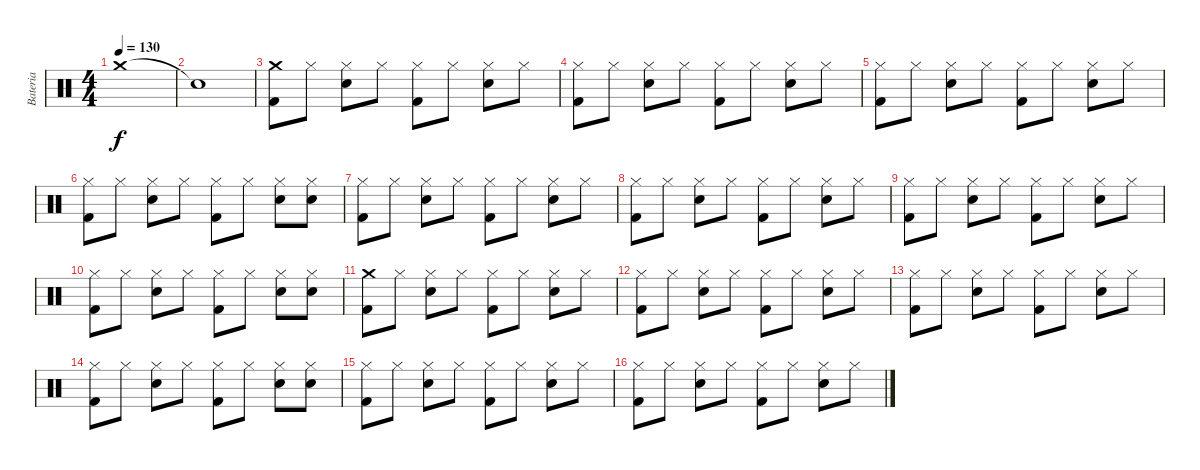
\track ("Bateria" "Bateria") {instrument percussion}
\staff {score}
\articulation defaults
\ts (4 4)
\tempo 130
\clef neutral
\ks c "Crash medium (hit)".1{dy f}
|
"Snare (hit)"{t}.1 |
("Crash medium (hit)" "Kick (hit) 2").8 "Hi-Hat (closed)".8 ("Hi-Hat (closed)" "Electric Snare (hit)").8 "Hi-Hat (closed)".8 ("Hi-Hat (closed)" "Kick (hit) 2").8 "Hi-Hat (closed)".8 ("Hi-Hat (closed)" "Electric Snare (hit)").8 "Hi-Hat (closed)".8 |
("Hi-Hat (closed)" "Kick (hit) 2").8 "Hi-Hat (closed)".8 ("Hi-Hat (closed)" "Electric Snare (hit)").8 "Hi-Hat (closed)".8 ("Hi-Hat (closed)" "Kick (hit) 2").8 "Hi-Hat (closed)".8 ("Hi-Hat (closed)" "Electric Snare (hit)").8 "Hi-Hat (closed)".8 |
("Hi-Hat (closed)" "Kick (hit) 2").8 "Hi-Hat (closed)".8 ("Hi-Hat (closed)" "Electric Snare (hit)").8 "Hi-Hat (closed)".8 ("Hi-Hat (closed)" "Kick (hit) 2").8 "Hi-Hat (closed)".8 ("Hi-Hat (closed)" "Electric Snare (hit)").8 "Hi-Hat (closed)".8 |
("Hi-Hat (closed)" "Kick (hit) 2").8 "Hi-Hat (closed)".8 ("Hi-Hat (closed)" "Electric Snare (hit)").8 "Hi-Hat (closed)".8 ("Hi-Hat (closed)" "Kick (hit) 2").8 "Hi-Hat (closed)".8 ("Hi-Hat (closed)" "Electric Snare (hit)").8 ("Hi-Hat (closed)" "Electric Snare (hit)").8 |
("Hi-Hat (closed)" "Kick (hit) 2").8 "Hi-Hat (closed)".8 ("Hi-Hat (closed)" "Electric Snare (hit)").8 "Hi-Hat (closed)".8 ("Hi-Hat (closed)" "Kick (hit) 2").8 "Hi-Hat (closed)".8 ("Hi-Hat (closed)" "Electric Snare (hit)").8 "Hi-Hat (closed)".8 |
("Hi-Hat (closed)" "Kick (hit) 2").8 "Hi-Hat (closed)".8 ("Hi-Hat (closed)" "Electric Snare (hit)").8 "Hi-Hat (closed)".8 ("Hi-Hat (closed)" "Kick (hit) 2").8 "Hi-Hat (closed)".8 ("Hi-Hat (closed)" "Electric Snare (hit)").8 "Hi-Hat (closed)".8 |
("Hi-Hat (closed)" "Kick (hit) 2").8 "Hi-Hat (closed)".8 ("Hi-Hat (closed)" "Electric Snare (hit)").8 "Hi-Hat (closed)".8 ("Hi-Hat (closed)" "Kick (hit) 2").8 "Hi-Hat (closed)".8 ("Hi-Hat (closed)" "Electric Snare (hit)").8 "Hi-Hat (closed)".8 |
("Hi-Hat (closed)" "Kick (hit) 2").8 "Hi-Hat (closed)".8 ("Hi-Hat (closed)" "Electric Snare (hit)").8 "Hi-Hat (closed)".8 ("Hi-Hat (closed)" "Kick (hit) 2").8 "Hi-Hat (closed)".8 ("Hi-Hat (closed)" "Electric Snare (hit)").8 ("Hi-Hat (closed)" "Electric Snare (hit)").8 |
("Crash medium (hit)" "Kick (hit) 2").8 "Hi-Hat (closed)".8 ("Hi-Hat (closed)" "Electric Snare (hit)").8 "Hi-Hat (closed)".8 ("Hi-Hat (closed)" "Kick (hit) 2").8 "Hi-Hat (closed)".8 ("Hi-Hat (closed)" "Electric Snare (hit)").8 "Hi-Hat (closed)".8 |
("Hi-Hat (closed)" "Kick (hit) 2").8 "Hi-Hat (closed)".8 ("Hi-Hat (closed)" "Electric Snare (hit)").8 "Hi-Hat (closed)".8 ("Hi-Hat (closed)" "Kick (hit) 2").8 "Hi-Hat (closed)".8 ("Hi-Hat (closed)" "Electric Snare (hit)").8 "Hi-Hat (closed)".8 |
("Hi-Hat (closed)" "Kick (hit) 2").8 "Hi-Hat (closed)".8 ("Hi-Hat (closed)" "Electric Snare (hit)").8 "Hi-Hat (closed)".8 ("Hi-Hat (closed)" "Kick (hit) 2").8 "Hi-Hat (closed)".8 ("Hi-Hat (closed)" "Electric Snare (hit)").8 "Hi-Hat (closed)".8 |
("Hi-Hat (closed)" "Kick (hit) 2").8 "Hi-Hat (closed)".8 ("Hi-Hat (closed)" "Electric Snare (hit)").8 "Hi-Hat (closed)".8 ("Hi-Hat (closed)" "Kick (hit) 2").8 "Hi-Hat (closed)".8 ("Hi-Hat (closed)" "Electric Snare (hit)").8 ("Hi-Hat (closed)" "Electric Snare (hit)").8 |
("Hi-Hat (closed)" "Kick (hit) 2").8 "Hi-Hat (closed)".8 ("Hi-Hat (closed)" "Electric Snare (hit)").8 "Hi-Hat (closed)".8 ("Hi-Hat (closed)" "Kick (hit) 2").8 "Hi-Hat (closed)".8 ("Hi-Hat (closed)" "Electric Snare (hit)").8 "Hi-Hat (closed)".8 |
("Hi-Hat (closed)" "Kick (hit) 2").8 "Hi-Hat (closed)".8 ("Hi-Hat (closed)" "Electric Snare (hit)").8 "Hi-Hat (closed)".8 ("Hi-Hat (closed)" "Kick (hit) 2").8 "Hi-Hat (closed)".8 ("Hi-Hat (closed)" "Electric Snare (hit)").8 "Hi-Hat (closed)".8
